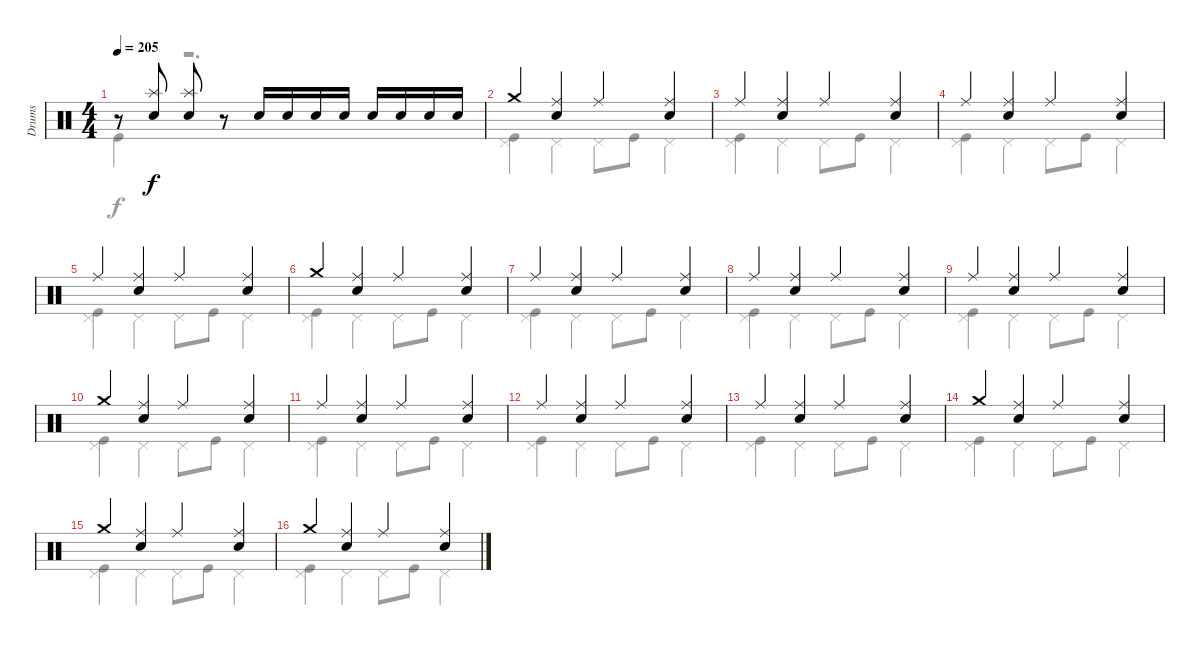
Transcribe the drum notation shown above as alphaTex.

\track ("Drums" "Drums") {instrument percussion}
\staff {score}
\articulation defaults
\voice
\ts (4 4)
\tempo 205
\clef neutral
\ks c
r.8{dy f} ("Splash (hit)" "Snare (hit) 2").8 ("Splash (hit)" "Snare (hit) 2").8 r.8 "Snare (hit) 2".16 "Snare (hit) 2".16 "Snare (hit) 2".16 "Snare (hit) 2".16 "Snare (hit) 2".16 "Snare (hit) 2".16 "Snare (hit) 2".16 "Snare (hit) 2".16 |
"Crash medium (hit)".4 ("Ride (middle)" "Snare (hit) 2").4 "Ride (middle)".4 ("Ride (middle)" "Snare (hit) 2").4 |
"Ride (middle)".4 ("Ride (middle)" "Snare (hit) 2").4 "Ride (middle)".4 ("Ride (middle)" "Snare (hit) 2").4 |
"Ride (middle)".4 ("Ride (middle)" "Snare (hit) 2").4 "Ride (middle)".4 ("Ride (middle)" "Snare (hit) 2").4 |
"Ride (middle)".4 ("Ride (middle)" "Snare (hit) 2").4 "Ride (middle)".4 ("Ride (middle)" "Snare (hit) 2").4 |
"Crash medium (hit)".4 ("Ride (middle)" "Snare (hit) 2").4 "Ride (middle)".4 ("Ride (middle)" "Snare (hit) 2").4 |
"Ride (middle)".4 ("Ride (middle)" "Snare (hit) 2").4 "Ride (middle)".4 ("Ride (middle)" "Snare (hit) 2").4 |
"Ride (middle)".4 ("Ride (middle)" "Snare (hit) 2").4 "Ride (middle)".4 ("Ride (middle)" "Snare (hit) 2").4 |
"Ride (middle)".4 ("Ride (middle)" "Snare (hit) 2").4 "Ride (middle)".4 ("Ride (middle)" "Snare (hit) 2").4 |
"Crash medium (hit)".4 ("Ride (middle)" "Snare (hit) 2").4 "Ride (middle)".4 ("Ride (middle)" "Snare (hit) 2").4 |
"Ride (middle)".4 ("Ride (middle)" "Snare (hit) 2").4 "Ride (middle)".4 ("Ride (middle)" "Snare (hit) 2").4 |
"Ride (middle)".4 ("Ride (middle)" "Snare (hit) 2").4 "Ride (middle)".4 ("Ride (middle)" "Snare (hit) 2").4 |
"Ride (middle)".4 ("Ride (middle)" "Snare (hit) 2").4 "Ride (middle)".4 ("Ride (middle)" "Snare (hit) 2").4 |
"Crash medium (hit)".4 ("Ride (middle)" "Snare (hit) 2").4 "Ride (middle)".4 ("Ride (middle)" "Snare (hit) 2").4 |
"Crash medium (hit)".4 ("Ride (middle)" "Snare (hit) 2").4 "Ride (middle)".4 ("Ride (middle)" "Snare (hit) 2").4 |
"Crash medium (hit)".4 ("Ride (middle)" "Snare (hit) 2").4 "Ride (middle)".4 ("Ride (middle)" "Snare (hit) 2").4
\voice
\clef neutral
\ottava regular
\simile none
\ks c "Kick (hit)".4{dy f}
r.2{d} |
("Pedal Hi-Hat (hit)" "Kick (hit)").4 "Pedal Hi-Hat (hit)".4 "Pedal Hi-Hat (hit)".8 "Kick (hit)".8 "Pedal Hi-Hat (hit)".4 |
("Pedal Hi-Hat (hit)" "Kick (hit)").4 "Pedal Hi-Hat (hit)".4 "Pedal Hi-Hat (hit)".8 "Kick (hit)".8 "Pedal Hi-Hat (hit)".4 |
("Pedal Hi-Hat (hit)" "Kick (hit)").4 "Pedal Hi-Hat (hit)".4 "Pedal Hi-Hat (hit)".8 "Kick (hit)".8 "Pedal Hi-Hat (hit)".4 |
("Pedal Hi-Hat (hit)" "Kick (hit)").4 "Pedal Hi-Hat (hit)".4 "Pedal Hi-Hat (hit)".8 "Kick (hit)".8 "Pedal Hi-Hat (hit)".4 |
("Pedal Hi-Hat (hit)" "Kick (hit)").4 "Pedal Hi-Hat (hit)".4 "Pedal Hi-Hat (hit)".8 "Kick (hit)".8 "Pedal Hi-Hat (hit)".4 |
("Pedal Hi-Hat (hit)" "Kick (hit)").4 "Pedal Hi-Hat (hit)".4 "Pedal Hi-Hat (hit)".8 "Kick (hit)".8 "Pedal Hi-Hat (hit)".4 |
("Pedal Hi-Hat (hit)" "Kick (hit)").4 "Pedal Hi-Hat (hit)".4 "Pedal Hi-Hat (hit)".8 "Kick (hit)".8 "Pedal Hi-Hat (hit)".4 |
("Pedal Hi-Hat (hit)" "Kick (hit)").4 "Pedal Hi-Hat (hit)".4 "Pedal Hi-Hat (hit)".8 "Kick (hit)".8 "Pedal Hi-Hat (hit)".4 |
("Pedal Hi-Hat (hit)" "Kick (hit)").4 "Pedal Hi-Hat (hit)".4 "Pedal Hi-Hat (hit)".8 "Kick (hit)".8 "Pedal Hi-Hat (hit)".4 |
("Pedal Hi-Hat (hit)" "Kick (hit)").4 "Pedal Hi-Hat (hit)".4 "Pedal Hi-Hat (hit)".8 "Kick (hit)".8 "Pedal Hi-Hat (hit)".4 |
("Pedal Hi-Hat (hit)" "Kick (hit)").4 "Pedal Hi-Hat (hit)".4 "Pedal Hi-Hat (hit)".8 "Kick (hit)".8 "Pedal Hi-Hat (hit)".4 |
("Pedal Hi-Hat (hit)" "Kick (hit)").4 "Pedal Hi-Hat (hit)".4 "Pedal Hi-Hat (hit)".8 "Kick (hit)".8 "Pedal Hi-Hat (hit)".4 |
("Pedal Hi-Hat (hit)" "Kick (hit)").4 "Pedal Hi-Hat (hit)".4 "Pedal Hi-Hat (hit)".8 "Kick (hit)".8 "Pedal Hi-Hat (hit)".4 |
("Pedal Hi-Hat (hit)" "Kick (hit)").4 "Pedal Hi-Hat (hit)".4 "Pedal Hi-Hat (hit)".8 "Kick (hit)".8 "Pedal Hi-Hat (hit)".4 |
("Pedal Hi-Hat (hit)" "Kick (hit)").4 "Pedal Hi-Hat (hit)".4 "Pedal Hi-Hat (hit)".8 "Kick (hit)".8 "Pedal Hi-Hat (hit)".4
